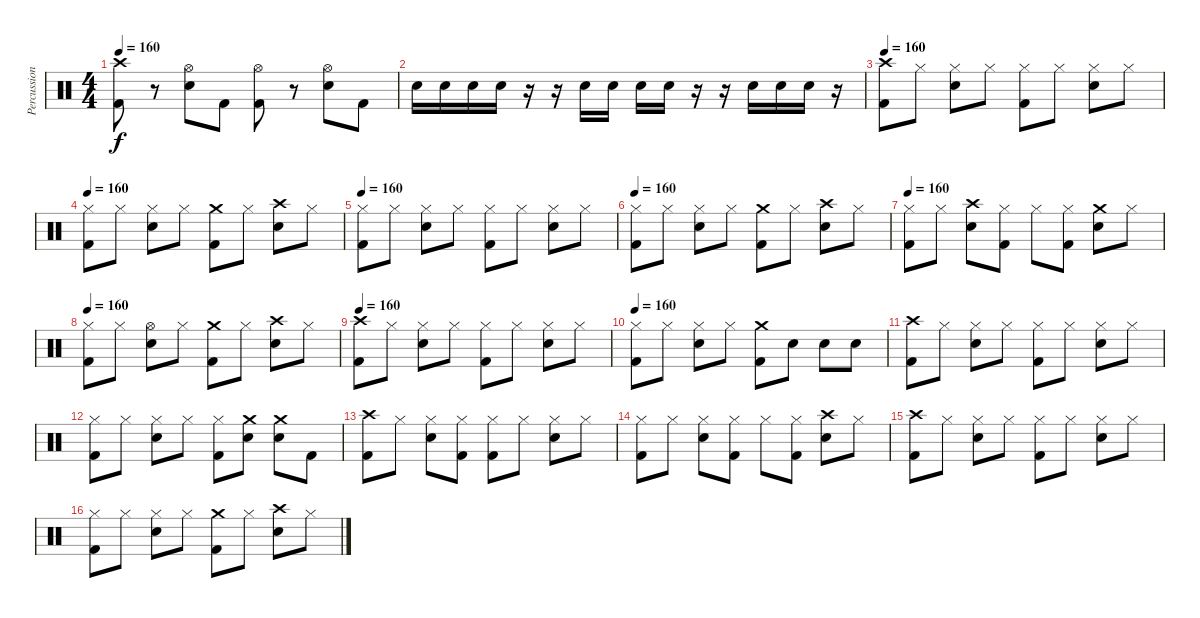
\track ("Percussion" "Percussion") {instrument percussion}
\staff {score}
\articulation defaults
\ts (4 4)
\tempo 160
\clef neutral
\ks c
("Crash high (hit)" "Kick (hit) 2").8{dy f} r.8 ("Hi-Hat (open)" "Snare (hit) 2").8 "Kick (hit) 2".8 ("Hi-Hat (open)" "Kick (hit) 2").8 r.8 ("Hi-Hat (open)" "Snare (hit) 2").8 "Kick (hit) 2".8 |
"Snare (hit) 2".16 "Snare (hit) 2".16 "Snare (hit) 2".16 "Snare (hit) 2".16 r.16 r.16 "Snare (hit) 2".16 "Snare (hit) 2".16 "Snare (hit) 2".16 "Snare (hit) 2".16 r.16 r.16 "Snare (hit) 2".16 "Snare (hit) 2".16 "Snare (hit) 2".16 r.16 |
\tempo 160
("Crash high (hit)" "Kick (hit) 2").8 "Hi-Hat (closed)".8 ("Hi-Hat (closed)" "Snare (hit) 2").8 "Hi-Hat (closed)".8 ("Hi-Hat (closed)" "Kick (hit) 2").8 "Hi-Hat (closed)".8 ("Hi-Hat (closed)" "Snare (hit) 2").8 "Hi-Hat (closed)".8 |
\tempo 160
("Hi-Hat (closed)" "Kick (hit) 2").8 "Hi-Hat (closed)".8 ("Hi-Hat (closed)" "Snare (hit) 2").8 "Hi-Hat (closed)".8 ("Crash medium (hit)" "Kick (hit) 2").8 "Hi-Hat (closed)".8 ("Crash high (hit)" "Snare (hit) 2").8 "Hi-Hat (closed)".8 |
\tempo 160
("Hi-Hat (closed)" "Kick (hit) 2").8 "Hi-Hat (closed)".8 ("Hi-Hat (closed)" "Snare (hit) 2").8 "Hi-Hat (closed)".8 ("Hi-Hat (closed)" "Kick (hit) 2").8 "Hi-Hat (closed)".8 ("Hi-Hat (closed)" "Snare (hit) 2").8 "Hi-Hat (closed)".8 |
\tempo 160
("Hi-Hat (closed)" "Kick (hit) 2").8 "Hi-Hat (closed)".8 ("Hi-Hat (closed)" "Snare (hit) 2").8 "Hi-Hat (closed)".8 ("Crash medium (hit)" "Kick (hit) 2").8 "Hi-Hat (closed)".8 ("Crash high (hit)" "Snare (hit) 2").8 "Hi-Hat (closed)".8 |
\tempo 160
("Hi-Hat (closed)" "Kick (hit) 2").8 "Hi-Hat (closed)".8 ("Crash high (hit)" "Snare (hit) 2").8 ("Hi-Hat (closed)" "Kick (hit) 2").8 "Hi-Hat (closed)".8 ("Hi-Hat (closed)" "Kick (hit) 2").8 ("Crash medium (hit)" "Snare (hit) 2").8 "Hi-Hat (closed)".8 |
\tempo 160
("Hi-Hat (closed)" "Kick (hit) 2").8 "Hi-Hat (closed)".8 ("Hi-Hat (open)" "Snare (hit) 2").8 "Hi-Hat (closed)".8 ("Crash medium (hit)" "Kick (hit) 2").8 "Hi-Hat (closed)".8 ("Crash high (hit)" "Snare (hit) 2").8 "Hi-Hat (closed)".8 |
\tempo 160
("Crash high (hit)" "Kick (hit) 2").8 "Hi-Hat (closed)".8 ("Hi-Hat (closed)" "Snare (hit) 2").8 "Hi-Hat (closed)".8 ("Hi-Hat (closed)" "Kick (hit) 2").8 "Hi-Hat (closed)".8 ("Hi-Hat (closed)" "Snare (hit) 2").8 "Hi-Hat (closed)".8 |
\tempo 160
("Hi-Hat (closed)" "Kick (hit) 2").8 "Hi-Hat (closed)".8 ("Hi-Hat (closed)" "Snare (hit) 2").8 "Hi-Hat (closed)".8 ("Crash medium (hit)" "Kick (hit) 2").8 "Snare (hit) 2".8 "Snare (hit) 2".8 "Snare (hit) 2".8 |
("Crash high (hit)" "Kick (hit) 2").8 "Hi-Hat (closed)".8 ("Hi-Hat (closed)" "Snare (hit) 2").8 "Hi-Hat (closed)".8 ("Hi-Hat (closed)" "Kick (hit) 2").8 "Hi-Hat (closed)".8 ("Hi-Hat (closed)" "Snare (hit) 2").8 "Hi-Hat (closed)".8 |
("Hi-Hat (closed)" "Kick (hit) 2").8 "Hi-Hat (closed)".8 ("Hi-Hat (closed)" "Snare (hit) 2").8 "Hi-Hat (closed)".8 ("Hi-Hat (closed)" "Kick (hit) 2").8 ("Crash medium (hit)" "Snare (hit) 2").8 ("Crash medium (hit)" "Snare (hit) 2").8 "Kick (hit) 2".8 |
("Crash high (hit)" "Kick (hit) 2").8 "Hi-Hat (closed)".8 ("Hi-Hat (closed)" "Snare (hit) 2").8 ("Hi-Hat (closed)" "Kick (hit) 2").8 ("Hi-Hat (closed)" "Kick (hit) 2").8 "Hi-Hat (closed)".8 ("Hi-Hat (closed)" "Snare (hit) 2").8 "Hi-Hat (closed)".8 |
("Hi-Hat (closed)" "Kick (hit) 2").8 "Hi-Hat (closed)".8 ("Hi-Hat (closed)" "Snare (hit) 2").8 ("Hi-Hat (closed)" "Kick (hit) 2").8 "Hi-Hat (closed)".8 ("Hi-Hat (closed)" "Kick (hit) 2").8 ("Crash high (hit)" "Snare (hit) 2").8 "Hi-Hat (closed)".8 |
("Crash high (hit)" "Kick (hit) 2").8 "Hi-Hat (closed)".8 ("Hi-Hat (closed)" "Snare (hit) 2").8 "Hi-Hat (closed)".8 ("Hi-Hat (closed)" "Kick (hit) 2").8 "Hi-Hat (closed)".8 ("Hi-Hat (closed)" "Snare (hit) 2").8 "Hi-Hat (closed)".8 |
("Hi-Hat (closed)" "Kick (hit) 2").8 "Hi-Hat (closed)".8 ("Hi-Hat (closed)" "Snare (hit) 2").8 "Hi-Hat (closed)".8 ("Crash medium (hit)" "Kick (hit) 2").8 "Hi-Hat (closed)".8 ("Crash high (hit)" "Snare (hit) 2").8 "Hi-Hat (closed)".8
